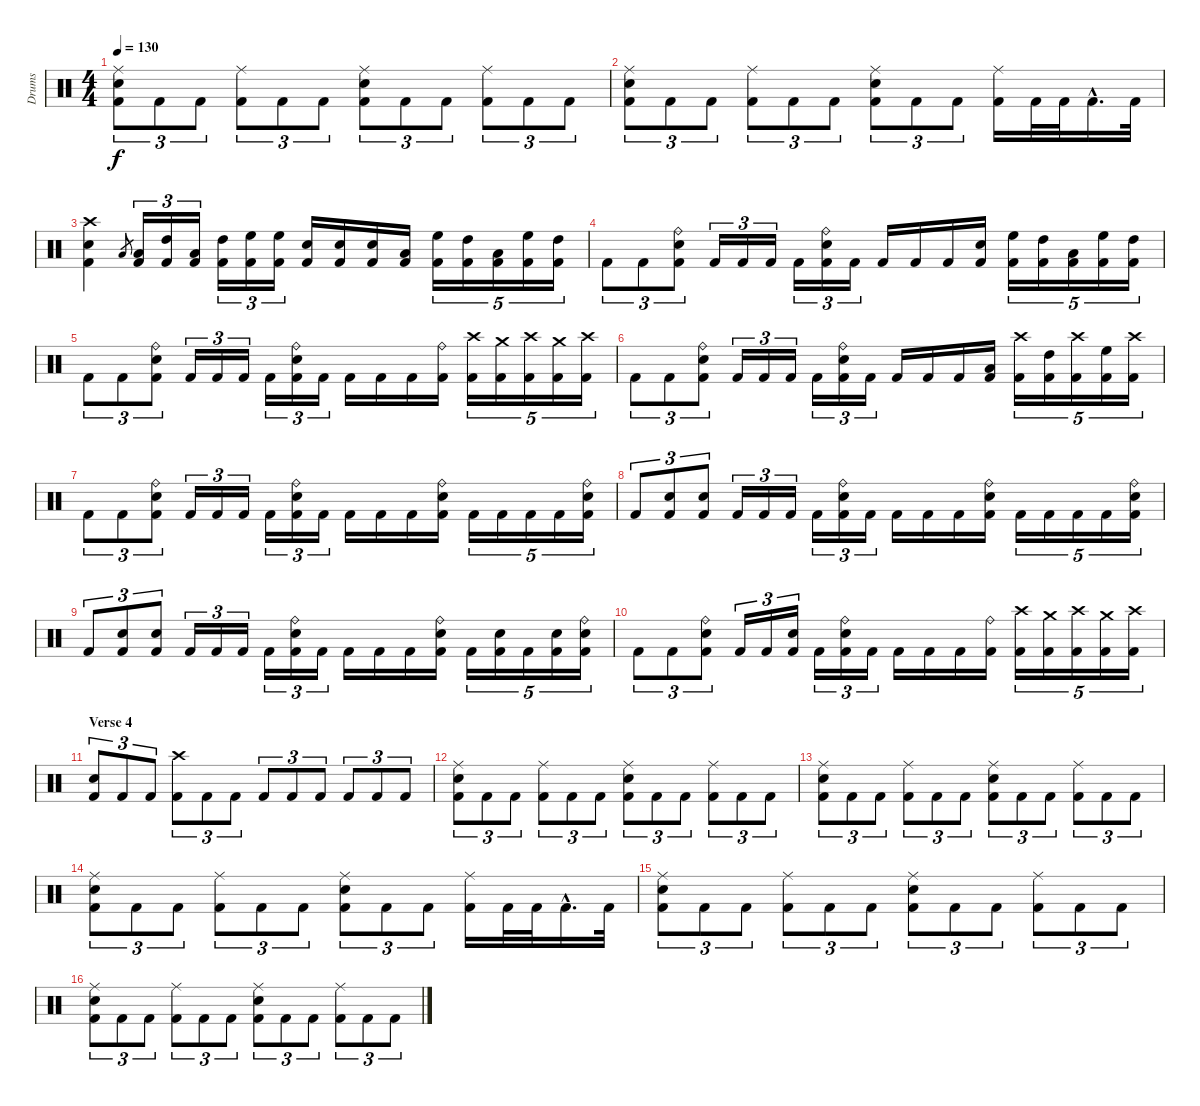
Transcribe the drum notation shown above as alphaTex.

\track ("Drums" "Drums") {instrument percussion}
\staff {score}
\articulation defaults
\ts (4 4)
\tempo 130
\clef neutral
\ks c
("Ride (middle)" "Snare (hit) 2" "Kick (hit) 2").8{tu (3 2) dy f} "Kick (hit) 2".8{tu (3 2)} "Kick (hit) 2".8{tu (3 2)} ("Ride (middle)" "Kick (hit) 2").8{tu (3 2)} "Kick (hit) 2".8{tu (3 2)} "Kick (hit) 2".8{tu (3 2)} ("Ride (middle)" "Snare (hit) 2" "Kick (hit) 2").8{tu (3 2)} "Kick (hit) 2".8{tu (3 2)} "Kick (hit) 2".8{tu (3 2)} ("Ride (middle)" "Kick (hit) 2").8{tu (3 2)} "Kick (hit) 2".8{tu (3 2)} "Kick (hit) 2".8{tu (3 2)} |
("Ride (middle)" "Snare (hit) 2" "Kick (hit) 2").8{tu (3 2)} "Kick (hit) 2".8{tu (3 2)} "Kick (hit) 2".8{tu (3 2)} ("Ride (middle)" "Kick (hit) 2").8{tu (3 2)} "Kick (hit) 2".8{tu (3 2)} "Kick (hit) 2".8{tu (3 2)} ("Ride (middle)" "Snare (hit) 2" "Kick (hit) 2").8{tu (3 2)} "Kick (hit) 2".8{tu (3 2)} "Kick (hit) 2".8{tu (3 2)} ("Ride (middle)" "Kick (hit) 2").16 "Kick (hit) 2".32 "Kick (hit) 2".32 "Kick (hit) 2"{hac}.16{d} "Kick (hit) 2".32 |
("Crash high (hit)" "Snare (hit) 2" "Kick (hit) 2").4 "Low Tom (hit)".8{gr} ("Low Tom (hit)" "Kick (hit) 2").16{tu (3 2)} ("High Tom (hit)" "Kick (hit) 2").16{tu (3 2)} ("Low Tom (hit)" "Kick (hit) 2").16{tu (3 2)} ("High Tom (hit)" "Kick (hit) 2").16{tu (3 2)} ("High Floor Tom (hit)" "Kick (hit) 2").16{tu (3 2)} ("High Floor Tom (hit)" "Kick (hit) 2").16{tu (3 2)} ("Snare (hit) 2" "Kick (hit) 2").16 ("Snare (hit) 2" "Kick (hit) 2").16 ("Snare (hit) 2" "Kick (hit) 2").16 ("Low Tom (hit)" "Kick (hit) 2").16 ("High Floor Tom (hit)" "Kick (hit) 2").16{tu (5 4)} ("High Tom (hit)" "Kick (hit) 2").16{tu (5 4)} ("Low Tom (hit)" "Kick (hit) 2").16{tu (5 4)} ("High Floor Tom (hit)" "Kick (hit) 2").16{tu (5 4)} ("High Tom (hit)" "Kick (hit) 2").16{tu (5 4)} |
"Kick (hit) 2".8{tu (3 2)} "Kick (hit) 2".8{tu (3 2)} ("Ride (bell)" "Snare (hit) 2" "Kick (hit) 2").8{tu (3 2)} "Kick (hit) 2".16{tu (3 2)} "Kick (hit) 2".16{tu (3 2)} "Kick (hit) 2".16{tu (3 2)} "Kick (hit) 2".16{tu (3 2)} ("Ride (bell)" "Snare (hit) 2" "Kick (hit) 2").16{tu (3 2)} "Kick (hit) 2".16{tu (3 2)} "Kick (hit) 2".16 "Kick (hit) 2".16 "Kick (hit) 2".16 ("Snare (hit) 2" "Kick (hit) 2").16 ("High Floor Tom (hit)" "Kick (hit) 2").16{tu (5 4)} ("High Tom (hit)" "Kick (hit) 2").16{tu (5 4)} ("Low Tom (hit)" "Kick (hit) 2").16{tu (5 4)} ("High Floor Tom (hit)" "Kick (hit) 2").16{tu (5 4)} ("High Tom (hit)" "Kick (hit) 2").16{tu (5 4)} |
"Kick (hit) 2".8{tu (3 2)} "Kick (hit) 2".8{tu (3 2)} ("Ride (bell)" "Snare (hit) 2" "Kick (hit) 2").8{tu (3 2)} "Kick (hit) 2".16{tu (3 2)} "Kick (hit) 2".16{tu (3 2)} "Kick (hit) 2".16{tu (3 2)} "Kick (hit) 2".16{tu (3 2)} ("Ride (bell)" "Snare (hit) 2" "Kick (hit) 2").16{tu (3 2)} "Kick (hit) 2".16{tu (3 2)} "Kick (hit) 2".16 "Kick (hit) 2".16 "Kick (hit) 2".16 ("Ride (bell)" "Kick (hit) 2").16 ("Crash high (hit)" "Kick (hit) 2").16{tu (5 4)} ("Crash medium (hit)" "Kick (hit) 2").16{tu (5 4)} ("Crash high (hit)" "Kick (hit) 2").16{tu (5 4)} ("Crash medium (hit)" "Kick (hit) 2").16{tu (5 4)} ("Crash high (hit)" "Kick (hit) 2").16{tu (5 4)} |
"Kick (hit) 2".8{tu (3 2)} "Kick (hit) 2".8{tu (3 2)} ("Ride (bell)" "Snare (hit) 2" "Kick (hit) 2").8{tu (3 2)} "Kick (hit) 2".16{tu (3 2)} "Kick (hit) 2".16{tu (3 2)} "Kick (hit) 2".16{tu (3 2)} "Kick (hit) 2".16{tu (3 2)} ("Ride (bell)" "Snare (hit) 2" "Kick (hit) 2").16{tu (3 2)} "Kick (hit) 2".16{tu (3 2)} "Kick (hit) 2".16 "Kick (hit) 2".16 "Kick (hit) 2".16 ("Low Tom (hit)" "Kick (hit) 2").16 ("Crash high (hit)" "Kick (hit) 2").16{tu (5 4)} ("High Tom (hit)" "Kick (hit) 2").16{tu (5 4)} ("Crash high (hit)" "Kick (hit) 2").16{tu (5 4)} ("High Floor Tom (hit)" "Kick (hit) 2").16{tu (5 4)} ("Crash high (hit)" "Kick (hit) 2").16{tu (5 4)} |
"Kick (hit) 2".8{tu (3 2)} "Kick (hit) 2".8{tu (3 2)} ("Ride (bell)" "Snare (hit) 2" "Kick (hit) 2").8{tu (3 2)} "Kick (hit) 2".16{tu (3 2)} "Kick (hit) 2".16{tu (3 2)} "Kick (hit) 2".16{tu (3 2)} "Kick (hit) 2".16{tu (3 2)} ("Ride (bell)" "Snare (hit) 2" "Kick (hit) 2").16{tu (3 2)} "Kick (hit) 2".16{tu (3 2)} "Kick (hit) 2".16 "Kick (hit) 2".16 "Kick (hit) 2".16 ("Ride (bell)" "Snare (hit) 2" "Kick (hit) 2").16 "Kick (hit) 2".16{tu (5 4)} "Kick (hit) 2".16{tu (5 4)} "Kick (hit) 2".16{tu (5 4)} "Kick (hit) 2".16{tu (5 4)} ("Ride (bell)" "Snare (hit) 2" "Kick (hit) 2").16{tu (5 4)} |
"Kick (hit) 2".8{tu (3 2)} ("Snare (hit) 2" "Kick (hit) 2").8{tu (3 2)} ("Snare (hit) 2" "Kick (hit) 2").8{tu (3 2)} "Kick (hit) 2".16{tu (3 2)} "Kick (hit) 2".16{tu (3 2)} "Kick (hit) 2".16{tu (3 2)} "Kick (hit) 2".16{tu (3 2)} ("Ride (bell)" "Snare (hit) 2" "Kick (hit) 2").16{tu (3 2)} "Kick (hit) 2".16{tu (3 2)} "Kick (hit) 2".16 "Kick (hit) 2".16 "Kick (hit) 2".16 ("Ride (bell)" "Snare (hit) 2" "Kick (hit) 2").16 "Kick (hit) 2".16{tu (5 4)} "Kick (hit) 2".16{tu (5 4)} "Kick (hit) 2".16{tu (5 4)} "Kick (hit) 2".16{tu (5 4)} ("Ride (bell)" "Snare (hit) 2" "Kick (hit) 2").16{tu (5 4)} |
"Kick (hit) 2".8{tu (3 2)} ("Snare (hit) 2" "Kick (hit) 2").8{tu (3 2)} ("Snare (hit) 2" "Kick (hit) 2").8{tu (3 2)} "Kick (hit) 2".16{tu (3 2)} "Kick (hit) 2".16{tu (3 2)} "Kick (hit) 2".16{tu (3 2)} "Kick (hit) 2".16{tu (3 2)} ("Ride (bell)" "Snare (hit) 2" "Kick (hit) 2").16{tu (3 2)} "Kick (hit) 2".16{tu (3 2)} "Kick (hit) 2".16 "Kick (hit) 2".16 "Kick (hit) 2".16 ("Ride (bell)" "Snare (hit) 2" "Kick (hit) 2").16 "Kick (hit) 2".16{tu (5 4)} ("Snare (hit) 2" "Kick (hit) 2").16{tu (5 4)} "Kick (hit) 2".16{tu (5 4)} ("Snare (hit) 2" "Kick (hit) 2").16{tu (5 4)} ("Ride (bell)" "Snare (hit) 2" "Kick (hit) 2").16{tu (5 4)} |
"Kick (hit) 2".8{tu (3 2)} "Kick (hit) 2".8{tu (3 2)} ("Ride (bell)" "Snare (hit) 2" "Kick (hit) 2").8{tu (3 2)} "Kick (hit) 2".16{tu (3 2)} "Kick (hit) 2".16{tu (3 2)} ("Snare (hit) 2" "Kick (hit) 2").16{tu (3 2)} "Kick (hit) 2".16{tu (3 2)} ("Ride (bell)" "Snare (hit) 2" "Kick (hit) 2").16{tu (3 2)} "Kick (hit) 2".16{tu (3 2)} "Kick (hit) 2".16 "Kick (hit) 2".16 "Kick (hit) 2".16 ("Ride (bell)" "Kick (hit) 2").16 ("Crash high (hit)" "Kick (hit) 2").16{tu (5 4)} ("Crash medium (hit)" "Kick (hit) 2").16{tu (5 4)} ("Crash high (hit)" "Kick (hit) 2").16{tu (5 4)} ("Crash medium (hit)" "Kick (hit) 2").16{tu (5 4)} ("Crash high (hit)" "Kick (hit) 2").16{tu (5 4)} |
\section ("" "Verse 4")
("Snare (hit) 2" "Kick (hit) 2").8{tu (3 2)} "Kick (hit) 2".8{tu (3 2)} "Kick (hit) 2".8{tu (3 2)} ("Crash high (hit)" "Kick (hit) 2").8{tu (3 2)} "Kick (hit) 2".8{tu (3 2)} "Kick (hit) 2".8{tu (3 2)} "Kick (hit) 2".8{tu (3 2)} "Kick (hit) 2".8{tu (3 2)} "Kick (hit) 2".8{tu (3 2)} "Kick (hit) 2".8{tu (3 2)} "Kick (hit) 2".8{tu (3 2)} "Kick (hit) 2".8{tu (3 2)} |
("Ride (middle)" "Snare (hit) 2" "Kick (hit) 2").8{tu (3 2)} "Kick (hit) 2".8{tu (3 2)} "Kick (hit) 2".8{tu (3 2)} ("Ride (middle)" "Kick (hit) 2").8{tu (3 2)} "Kick (hit) 2".8{tu (3 2)} "Kick (hit) 2".8{tu (3 2)} ("Ride (middle)" "Snare (hit) 2" "Kick (hit) 2").8{tu (3 2)} "Kick (hit) 2".8{tu (3 2)} "Kick (hit) 2".8{tu (3 2)} ("Ride (middle)" "Kick (hit) 2").8{tu (3 2)} "Kick (hit) 2".8{tu (3 2)} "Kick (hit) 2".8{tu (3 2)} |
("Ride (middle)" "Snare (hit) 2" "Kick (hit) 2").8{tu (3 2)} "Kick (hit) 2".8{tu (3 2)} "Kick (hit) 2".8{tu (3 2)} ("Ride (middle)" "Kick (hit) 2").8{tu (3 2)} "Kick (hit) 2".8{tu (3 2)} "Kick (hit) 2".8{tu (3 2)} ("Ride (middle)" "Snare (hit) 2" "Kick (hit) 2").8{tu (3 2)} "Kick (hit) 2".8{tu (3 2)} "Kick (hit) 2".8{tu (3 2)} ("Ride (middle)" "Kick (hit) 2").8{tu (3 2)} "Kick (hit) 2".8{tu (3 2)} "Kick (hit) 2".8{tu (3 2)} |
("Ride (middle)" "Snare (hit) 2" "Kick (hit) 2").8{tu (3 2)} "Kick (hit) 2".8{tu (3 2)} "Kick (hit) 2".8{tu (3 2)} ("Ride (middle)" "Kick (hit) 2").8{tu (3 2)} "Kick (hit) 2".8{tu (3 2)} "Kick (hit) 2".8{tu (3 2)} ("Ride (middle)" "Snare (hit) 2" "Kick (hit) 2").8{tu (3 2)} "Kick (hit) 2".8{tu (3 2)} "Kick (hit) 2".8{tu (3 2)} ("Ride (middle)" "Kick (hit) 2").16 "Kick (hit) 2".32 "Kick (hit) 2".32 "Kick (hit) 2"{hac}.16{d} "Kick (hit) 2".32 |
("Ride (middle)" "Snare (hit) 2" "Kick (hit) 2").8{tu (3 2)} "Kick (hit) 2".8{tu (3 2)} "Kick (hit) 2".8{tu (3 2)} ("Ride (middle)" "Kick (hit) 2").8{tu (3 2)} "Kick (hit) 2".8{tu (3 2)} "Kick (hit) 2".8{tu (3 2)} ("Ride (middle)" "Snare (hit) 2" "Kick (hit) 2").8{tu (3 2)} "Kick (hit) 2".8{tu (3 2)} "Kick (hit) 2".8{tu (3 2)} ("Ride (middle)" "Kick (hit) 2").8{tu (3 2)} "Kick (hit) 2".8{tu (3 2)} "Kick (hit) 2".8{tu (3 2)} |
("Ride (middle)" "Snare (hit) 2" "Kick (hit) 2").8{tu (3 2)} "Kick (hit) 2".8{tu (3 2)} "Kick (hit) 2".8{tu (3 2)} ("Ride (middle)" "Kick (hit) 2").8{tu (3 2)} "Kick (hit) 2".8{tu (3 2)} "Kick (hit) 2".8{tu (3 2)} ("Ride (middle)" "Snare (hit) 2" "Kick (hit) 2").8{tu (3 2)} "Kick (hit) 2".8{tu (3 2)} "Kick (hit) 2".8{tu (3 2)} ("Ride (middle)" "Kick (hit) 2").8{tu (3 2)} "Kick (hit) 2".8{tu (3 2)} "Kick (hit) 2".8{tu (3 2)}
